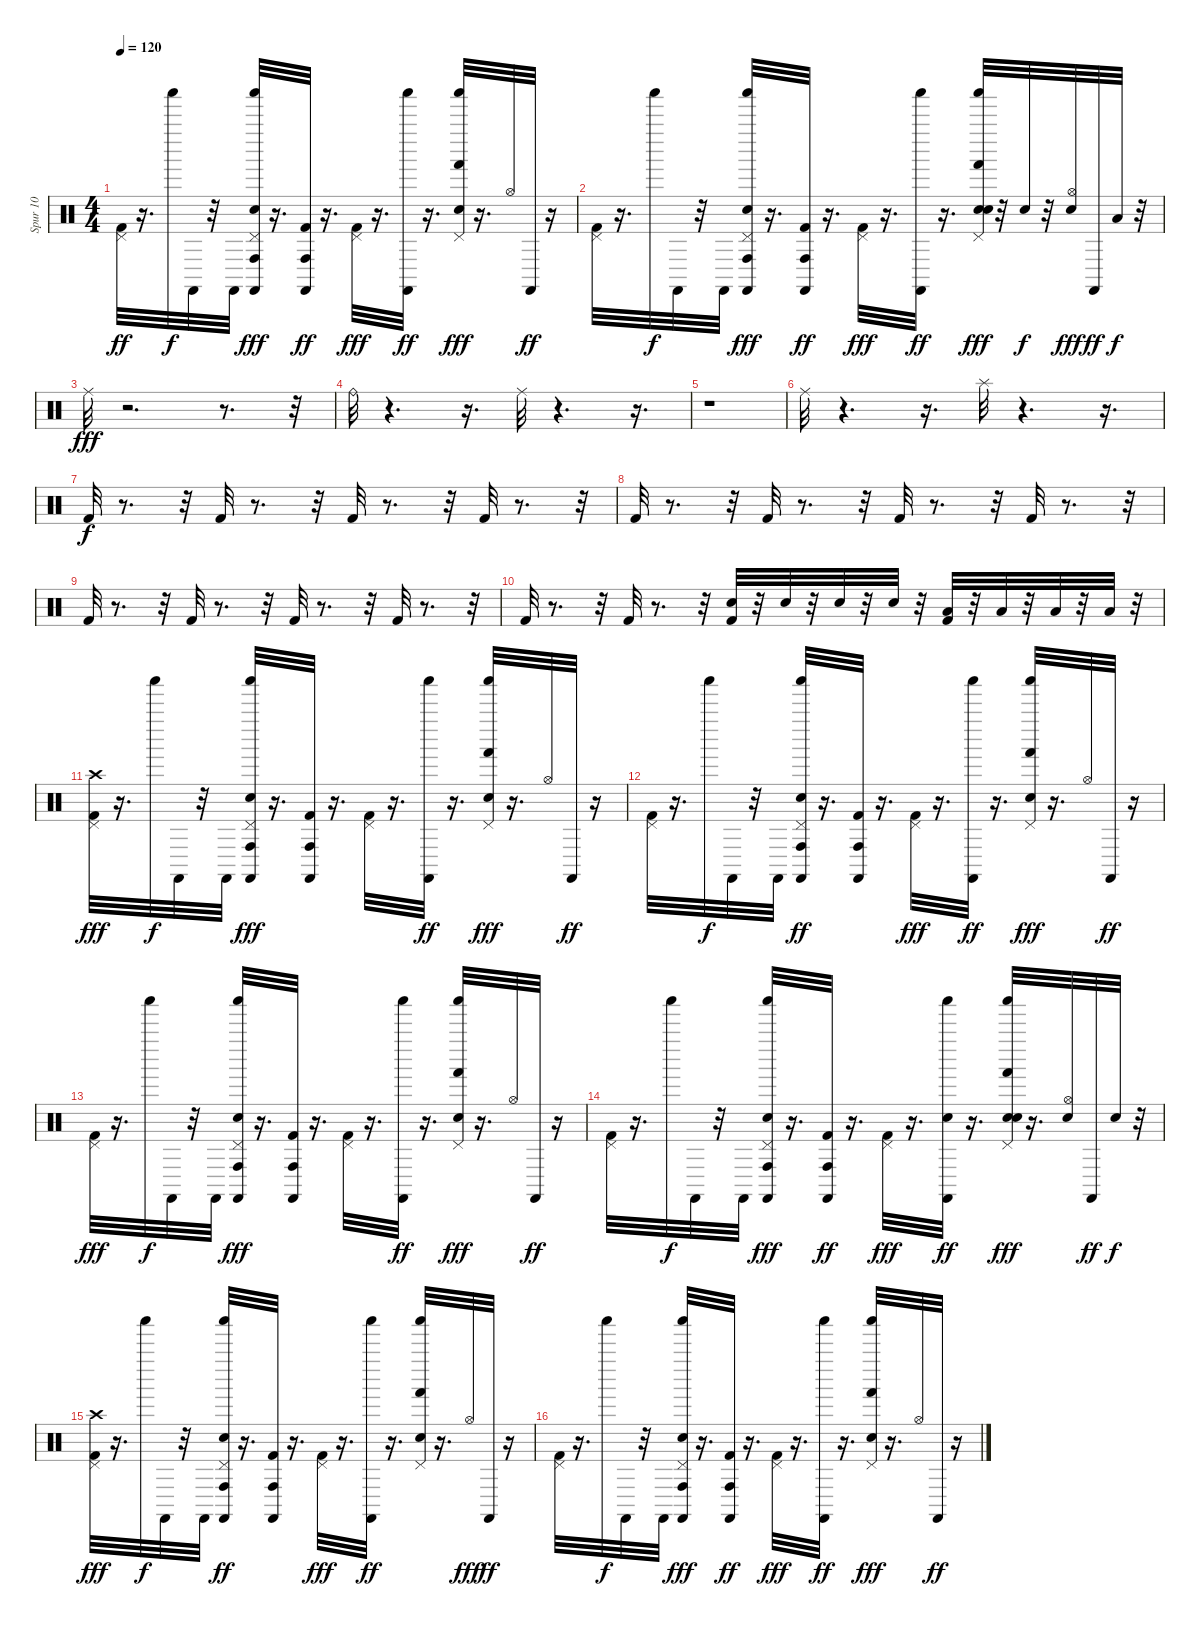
\track ("Spur 10" "Spur 10") {instrument percussion}
\staff {score}
\articulation defaults
\ts (4 4)
\tempo 120
\clef neutral
\ks c
("Kick (hit) 2" "Pedal Hi-Hat (hit)").32{dy ff} r.16{d} "Shaker (hit)".32{dy f} "Castanets (hit)".32 r.32 "Castanets (hit)".32 ("Shaker (hit)" "Snare (hit) 2" "Castanets (hit)" "Pedal Hi-Hat (hit)" "Conga high (hit)").32{dy fff} r.16{d} ("Castanets (hit)" "Conga high (hit)" "Kick (hit) 2").32{dy ff} r.16{d} ("Pedal Hi-Hat (hit)" "Kick (hit) 2").32{dy fff} r.16{d} ("Castanets (hit)" "Shaker (hit)").32{dy ff} r.16{d} ("Pedal Hi-Hat (hit)" "Hand (hit)" "Shaker (hit)" "Snare (hit) 2").32{dy fff} r.16{d} "Hi-Hat (open)".32 "Castanets (hit)".32{dy ff} r.16 |
("Kick (hit) 2" "Pedal Hi-Hat (hit)").32 r.16{d} "Shaker (hit)".32{dy f} "Castanets (hit)".32 r.32 "Castanets (hit)".32 ("Castanets (hit)" "Snare (hit) 2" "Shaker (hit)" "Conga high (hit)" "Pedal Hi-Hat (hit)").32{dy fff} r.16{d} ("Castanets (hit)" "Conga high (hit)" "Kick (hit) 2").32{dy ff} r.16{d} ("Kick (hit) 2" "Pedal Hi-Hat (hit)").32{dy fff} r.16{d} ("Castanets (hit)" "Shaker (hit)").32{dy ff} r.16{d} ("Electric Snare (hit)" "Hand (hit)" "Snare (hit) 2" "Shaker (hit)" "Pedal Hi-Hat (hit)").32{dy fff} r.32 "Electric Snare (hit)".32{dy f} r.32 ("Snare (hit) 2" "Hi-Hat (open)").32{dy fff} "Castanets (hit)".32{dy ff} "Low Tom (hit)".32{dy f} r.32 |
"Ride (middle)".32{dy fff} r.2{d} r.8{d} r.32 |
"Ride (bell)".32 r.4{d} r.16{d} "Ride (middle)".32 r.4{d} r.16{d} |
r.1 |
"Ride (middle)".32 r.4{d} r.16{d} "Splash (hit)".32 r.4{d} r.16{d} |
"Kick (hit) 2".32{dy f} r.8{d} r.32 "Kick (hit) 2".32 r.8{d} r.32 "Kick (hit) 2".32 r.8{d} r.32 "Kick (hit) 2".32 r.8{d} r.32 |
"Kick (hit) 2".32 r.8{d} r.32 "Kick (hit) 2".32 r.8{d} r.32 "Kick (hit) 2".32 r.8{d} r.32 "Kick (hit) 2".32 r.8{d} r.32 |
"Kick (hit) 2".32 r.8{d} r.32 "Kick (hit) 2".32 r.8{d} r.32 "Kick (hit) 2".32 r.8{d} r.32 "Kick (hit) 2".32 r.8{d} r.32 |
"Kick (hit) 2".32 r.8{d} r.32 "Kick (hit) 2".32 r.8{d} r.32 ("Kick (hit) 2" "Snare (hit) 2").32 r.32 "Snare (hit) 2".32 r.32 "Electric Snare (hit)".32 r.32 "Electric Snare (hit)".32 r.32 ("Low Tom (hit)" "Kick (hit) 2").32 r.32 "Low Tom (hit)".32 r.32 "Low Floor Tom (hit)".32 r.32 "Low Floor Tom (hit)".32 r.32 |
("Crash high (hit)" "Kick (hit) 2" "Pedal Hi-Hat (hit)").32{dy fff} r.16{d} "Shaker (hit)".32{dy f} "Castanets (hit)".32 r.32 "Castanets (hit)".32 ("Castanets (hit)" "Pedal Hi-Hat (hit)" "Conga high (hit)" "Snare (hit) 2" "Shaker (hit)").32{dy fff} r.16{d} ("Castanets (hit)" "Kick (hit) 2" "Conga high (hit)").32 r.16{d} ("Pedal Hi-Hat (hit)" "Kick (hit) 2").32 r.16{d} ("Castanets (hit)" "Shaker (hit)").32{dy ff} r.16{d} ("Shaker (hit)" "Pedal Hi-Hat (hit)" "Snare (hit) 2" "Hand (hit)").32{dy fff} r.16{d} "Hi-Hat (open)".32 "Castanets (hit)".32{dy ff} r.16 |
("Kick (hit) 2" "Pedal Hi-Hat (hit)").32 r.16{d} "Shaker (hit)".32{dy f} "Castanets (hit)".32 r.32 "Castanets (hit)".32 ("Shaker (hit)" "Pedal Hi-Hat (hit)" "Conga high (hit)" "Snare (hit) 2" "Castanets (hit)").32{dy ff} r.16{d} ("Kick (hit) 2" "Conga high (hit)" "Castanets (hit)").32 r.16{d} ("Pedal Hi-Hat (hit)" "Kick (hit) 2").32{dy fff} r.16{d} ("Castanets (hit)" "Shaker (hit)").32{dy ff} r.16{d} ("Hand (hit)" "Shaker (hit)" "Pedal Hi-Hat (hit)" "Snare (hit) 2").32{dy fff} r.16{d} "Hi-Hat (open)".32 "Castanets (hit)".32{dy ff} r.16 |
("Pedal Hi-Hat (hit)" "Kick (hit) 2").32{dy fff} r.16{d} "Shaker (hit)".32{dy f} "Castanets (hit)".32 r.32 "Castanets (hit)".32 ("Conga high (hit)" "Castanets (hit)" "Snare (hit) 2" "Pedal Hi-Hat (hit)" "Shaker (hit)").32{dy fff} r.16{d} ("Castanets (hit)" "Kick (hit) 2" "Conga high (hit)").32 r.16{d} ("Pedal Hi-Hat (hit)" "Kick (hit) 2").32 r.16{d} ("Shaker (hit)" "Castanets (hit)").32{dy ff} r.16{d} ("Hand (hit)" "Shaker (hit)" "Snare (hit) 2" "Pedal Hi-Hat (hit)").32{dy fff} r.16{d} "Hi-Hat (open)".32 "Castanets (hit)".32{dy ff} r.16 |
("Kick (hit) 2" "Pedal Hi-Hat (hit)").32 r.16{d} "Shaker (hit)".32{dy f} "Castanets (hit)".32 r.32 "Castanets (hit)".32 ("Snare (hit) 2" "Conga high (hit)" "Castanets (hit)" "Pedal Hi-Hat (hit)" "Shaker (hit)").32{dy fff} r.16{d} ("Conga high (hit)" "Kick (hit) 2" "Castanets (hit)").32{dy ff} r.16{d} ("Kick (hit) 2" "Pedal Hi-Hat (hit)").32{dy fff} r.16{d} ("Electric Snare (hit)" "Castanets (hit)" "Shaker (hit)").32{dy ff} r.16{d} ("Electric Snare (hit)" "Snare (hit) 2" "Pedal Hi-Hat (hit)" "Shaker (hit)" "Hand (hit)").32{dy fff} r.16{d} ("Snare (hit) 2" "Hi-Hat (open)").32 "Castanets (hit)".32{dy ff} "Snare (hit) 2".32{dy f} r.32 |
("Crash high (hit)" "Pedal Hi-Hat (hit)" "Kick (hit) 2").32{dy fff} r.16{d} "Shaker (hit)".32{dy f} "Castanets (hit)".32 r.32 "Castanets (hit)".32 ("Pedal Hi-Hat (hit)" "Shaker (hit)" "Snare (hit) 2" "Conga high (hit)" "Castanets (hit)").32{dy ff} r.16{d} ("Castanets (hit)" "Conga high (hit)" "Kick (hit) 2").32 r.16{d} ("Kick (hit) 2" "Pedal Hi-Hat (hit)").32{dy fff} r.16{d} ("Castanets (hit)" "Shaker (hit)").32{dy ff} r.16{d} ("Pedal Hi-Hat (hit)" "Hand (hit)" "Snare (hit) 2" "Shaker (hit)").32 r.16{d} "Hi-Hat (open)".32{dy fff} "Castanets (hit)".32{dy ff} r.16 |
("Kick (hit) 2" "Pedal Hi-Hat (hit)").32 r.16{d} "Shaker (hit)".32{dy f} "Castanets (hit)".32 r.32 "Castanets (hit)".32 ("Conga high (hit)" "Pedal Hi-Hat (hit)" "Shaker (hit)" "Castanets (hit)" "Snare (hit) 2").32{dy fff} r.16{d} ("Conga high (hit)" "Kick (hit) 2" "Castanets (hit)").32{dy ff} r.16{d} ("Pedal Hi-Hat (hit)" "Kick (hit) 2").32{dy fff} r.16{d} ("Castanets (hit)" "Shaker (hit)").32{dy ff} r.16{d} ("Shaker (hit)" "Snare (hit) 2" "Pedal Hi-Hat (hit)" "Hand (hit)").32{dy fff} r.16{d} "Hi-Hat (open)".32 "Castanets (hit)".32{dy ff} r.16
